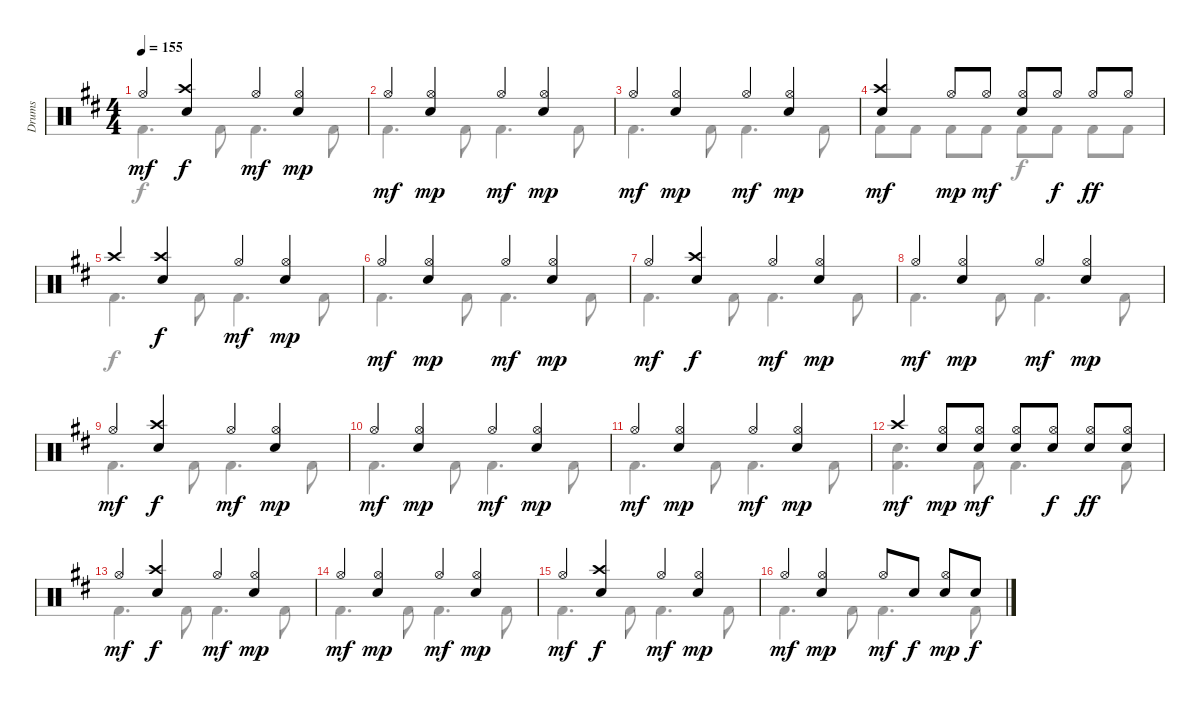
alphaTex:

\track ("Drums" "Drums") {instrument percussion}
\staff {score}
\articulation defaults
\voice
\ts (4 4)
\tempo 155
\clef neutral
\ks d "Hi-Hat (open)".4{dy mf}
("Crash high (hit)" "Electric Snare (hit)").4{dy f} "Hi-Hat (open)".4{dy mf} ("Hi-Hat (open)" "Electric Snare (hit)").4{dy mp} |
"Hi-Hat (open)".4{dy mf} ("Hi-Hat (open)" "Electric Snare (hit)").4{dy mp} "Hi-Hat (open)".4{dy mf} ("Hi-Hat (open)" "Electric Snare (hit)").4{dy mp} |
"Hi-Hat (open)".4{dy mf} ("Hi-Hat (open)" "Electric Snare (hit)").4{dy mp} "Hi-Hat (open)".4{dy mf} ("Hi-Hat (open)" "Electric Snare (hit)").4{dy mp} |
("Crash high (hit)" "Electric Snare (hit)").4{dy mf} "Hi-Hat (open)".8{dy mp} "Hi-Hat (open)".8{dy mf} ("Hi-Hat (open)" "Electric Snare (hit)").8 "Hi-Hat (open)".8{dy f} "Hi-Hat (open)".8{dy ff} "Hi-Hat (open)".8 |
"Crash high (hit)".4 ("Crash high (hit)" "Electric Snare (hit)").4{dy f} "Hi-Hat (open)".4{dy mf} ("Hi-Hat (open)" "Electric Snare (hit)").4{dy mp} |
"Hi-Hat (open)".4{dy mf} ("Hi-Hat (open)" "Electric Snare (hit)").4{dy mp} "Hi-Hat (open)".4{dy mf} ("Hi-Hat (open)" "Electric Snare (hit)").4{dy mp} |
"Hi-Hat (open)".4{dy mf} ("Crash high (hit)" "Electric Snare (hit)").4{dy f} "Hi-Hat (open)".4{dy mf} ("Hi-Hat (open)" "Electric Snare (hit)").4{dy mp} |
"Hi-Hat (open)".4{dy mf} ("Hi-Hat (open)" "Electric Snare (hit)").4{dy mp} "Hi-Hat (open)".4{dy mf} ("Hi-Hat (open)" "Electric Snare (hit)").4{dy mp} |
"Hi-Hat (open)".4{dy mf} ("Crash high (hit)" "Electric Snare (hit)").4{dy f} "Hi-Hat (open)".4{dy mf} ("Hi-Hat (open)" "Electric Snare (hit)").4{dy mp} |
"Hi-Hat (open)".4{dy mf} ("Hi-Hat (open)" "Electric Snare (hit)").4{dy mp} "Hi-Hat (open)".4{dy mf} ("Hi-Hat (open)" "Electric Snare (hit)").4{dy mp} |
"Hi-Hat (open)".4{dy mf} ("Hi-Hat (open)" "Electric Snare (hit)").4{dy mp} "Hi-Hat (open)".4{dy mf} ("Hi-Hat (open)" "Electric Snare (hit)").4{dy mp} |
"Crash high (hit)".4{dy mf} ("Hi-Hat (open)" "Electric Snare (hit)").8{dy mp} ("Hi-Hat (open)" "Electric Snare (hit)").8{dy mf} ("Hi-Hat (open)" "Electric Snare (hit)").8 ("Hi-Hat (open)" "Electric Snare (hit)").8{dy f} ("Hi-Hat (open)" "Electric Snare (hit)").8{dy ff} ("Hi-Hat (open)" "Electric Snare (hit)").8 |
"Hi-Hat (open)".4{dy mf} ("Crash high (hit)" "Electric Snare (hit)").4{dy f} "Hi-Hat (open)".4{dy mf} ("Hi-Hat (open)" "Electric Snare (hit)").4{dy mp} |
"Hi-Hat (open)".4{dy mf} ("Hi-Hat (open)" "Electric Snare (hit)").4{dy mp} "Hi-Hat (open)".4{dy mf} ("Hi-Hat (open)" "Electric Snare (hit)").4{dy mp} |
"Hi-Hat (open)".4{dy mf} ("Crash high (hit)" "Electric Snare (hit)").4{dy f} "Hi-Hat (open)".4{dy mf} ("Hi-Hat (open)" "Electric Snare (hit)").4{dy mp} |
"Hi-Hat (open)".4{dy mf} ("Hi-Hat (open)" "Electric Snare (hit)").4{dy mp} "Hi-Hat (open)".8{dy mf} "Electric Snare (hit)".8{dy f} ("Hi-Hat (open)" "Electric Snare (hit)").8{dy mp} "Electric Snare (hit)".8{dy f}
\voice
\clef neutral
\ottava regular
\simile none
\ks d "Kick (hit) 2".4{d dy f} "Kick (hit) 2".8 "Kick (hit) 2".4{d} "Kick (hit) 2".8
|
"Kick (hit) 2".4{d} "Kick (hit) 2".8 "Kick (hit) 2".4{d} "Kick (hit) 2".8 |
"Kick (hit) 2".4{d} "Kick (hit) 2".8 "Kick (hit) 2".4{d} "Kick (hit) 2".8 |
"Kick (hit) 2".8{dy mf} "Kick (hit) 2".8 "Kick (hit) 2".8 "Kick (hit) 2".8 "Kick (hit) 2".8{dy f} "Kick (hit) 2".8 "Kick (hit) 2".8{dy ff} "Kick (hit) 2".8 |
"Kick (hit) 2".4{d dy f} "Kick (hit) 2".8 "Kick (hit) 2".4{d} "Kick (hit) 2".8 |
"Kick (hit) 2".4{d} "Kick (hit) 2".8 "Kick (hit) 2".4{d} "Kick (hit) 2".8 |
"Kick (hit) 2".4{d} "Kick (hit) 2".8 "Kick (hit) 2".4{d} "Kick (hit) 2".8 |
"Kick (hit) 2".4{d} "Kick (hit) 2".8 "Kick (hit) 2".4{d} "Kick (hit) 2".8 |
"Kick (hit) 2".4{d} "Kick (hit) 2".8 "Kick (hit) 2".4{d} "Kick (hit) 2".8 |
"Kick (hit) 2".4{d} "Kick (hit) 2".8 "Kick (hit) 2".4{d} "Kick (hit) 2".8 |
"Kick (hit) 2".4{d} "Kick (hit) 2".8 "Kick (hit) 2".4{d} "Kick (hit) 2".8 |
("Electric Snare (hit)" "Kick (hit) 2").4{d} "Kick (hit) 2".8 "Kick (hit) 2".4{d} "Kick (hit) 2".8 |
"Kick (hit) 2".4{d} "Kick (hit) 2".8 "Kick (hit) 2".4{d} "Kick (hit) 2".8 |
"Kick (hit) 2".4{d} "Kick (hit) 2".8 "Kick (hit) 2".4{d} "Kick (hit) 2".8 |
"Kick (hit) 2".4{d} "Kick (hit) 2".8 "Kick (hit) 2".4{d} "Kick (hit) 2".8 |
"Kick (hit) 2".4{d} "Kick (hit) 2".8 "Kick (hit) 2".4{d} "Kick (hit) 2".8
